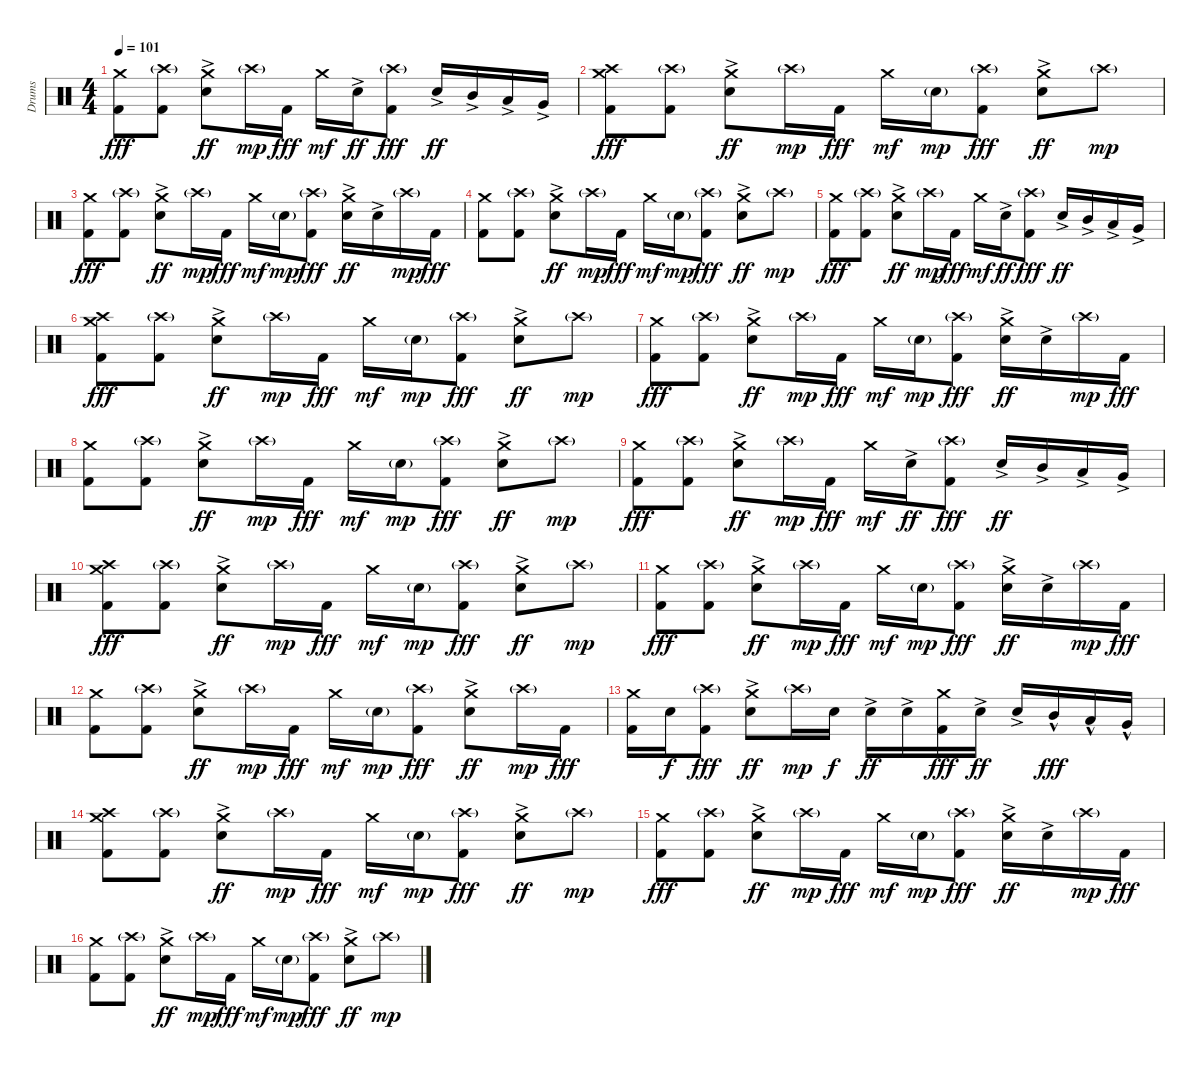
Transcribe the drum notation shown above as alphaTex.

\track ("Drums" "Drums") {instrument percussion}
\staff {score}
\articulation defaults
\ts (4 4)
\tempo 101
\clef neutral
\ks c
("Crash medium (hit)" "Kick (hit) 2").8{dy fff} ("Crash high (hit)"{g} "Kick (hit) 2").8 ("Crash medium (hit)" "Electric Snare (hit)"{ac}).8{dy ff} "Crash high (hit)"{g}.16{dy mp} "Kick (hit) 2".16{dy fff} "Crash medium (hit)".16{dy mf} "Electric Snare (hit)"{ac}.16{dy ff} ("Crash high (hit)"{g} "Kick (hit) 2").8{dy fff} "Electric Snare (hit)"{ac}.16{dy ff} "Mid Tom (hit)"{ac}.16 "Low Tom (hit)"{ac}.16 "Very Low Tom (hit)"{ac}.16 |
("Crash medium (hit)" "Crash high (hit)" "Kick (hit) 2").8{dy fff} ("Crash high (hit)"{g} "Kick (hit) 2").8 ("Crash medium (hit)" "Electric Snare (hit)"{ac}).8{dy ff} "Crash high (hit)"{g}.16{dy mp} "Kick (hit) 2".16{dy fff} "Crash medium (hit)".16{dy mf} "Snare (hit) 2"{g}.16{dy mp} ("Crash high (hit)"{g} "Kick (hit) 2").8{dy fff} ("Crash medium (hit)" "Electric Snare (hit)"{ac}).8{dy ff} "Crash high (hit)"{g}.8{dy mp} |
("Crash medium (hit)" "Kick (hit) 2").8{dy fff} ("Crash high (hit)"{g} "Kick (hit) 2").8 ("Crash medium (hit)" "Electric Snare (hit)"{ac}).8{dy ff} "Crash high (hit)"{g}.16{dy mp} "Kick (hit) 2".16{dy fff} "Crash medium (hit)".16{dy mf} "Snare (hit) 2"{g}.16{dy mp} ("Crash high (hit)"{g} "Kick (hit) 2").8{dy fff} ("Crash medium (hit)" "Electric Snare (hit)"{ac}).16{dy ff} "Electric Snare (hit)"{ac}.16 "Crash high (hit)"{g}.16{dy mp} "Kick (hit) 2".16{dy fff} |
("Crash medium (hit)" "Kick (hit) 2").8 ("Crash high (hit)"{g} "Kick (hit) 2").8 ("Crash medium (hit)" "Electric Snare (hit)"{ac}).8{dy ff} "Crash high (hit)"{g}.16{dy mp} "Kick (hit) 2".16{dy fff} "Crash medium (hit)".16{dy mf} "Snare (hit) 2"{g}.16{dy mp} ("Crash high (hit)"{g} "Kick (hit) 2").8{dy fff} ("Crash medium (hit)" "Electric Snare (hit)"{ac}).8{dy ff} "Crash high (hit)"{g}.8{dy mp} |
("Crash medium (hit)" "Kick (hit) 2").8{dy fff} ("Crash high (hit)"{g} "Kick (hit) 2").8 ("Crash medium (hit)" "Electric Snare (hit)"{ac}).8{dy ff} "Crash high (hit)"{g}.16{dy mp} "Kick (hit) 2".16{dy fff} "Crash medium (hit)".16{dy mf} "Electric Snare (hit)"{ac}.16{dy ff} ("Crash high (hit)"{g} "Kick (hit) 2").8{dy fff} "Electric Snare (hit)"{ac}.16{dy ff} "Mid Tom (hit)"{ac}.16 "Low Tom (hit)"{ac}.16 "Very Low Tom (hit)"{ac}.16 |
("Crash medium (hit)" "Crash high (hit)" "Kick (hit) 2").8{dy fff} ("Crash high (hit)"{g} "Kick (hit) 2").8 ("Crash medium (hit)" "Electric Snare (hit)"{ac}).8{dy ff} "Crash high (hit)"{g}.16{dy mp} "Kick (hit) 2".16{dy fff} "Crash medium (hit)".16{dy mf} "Snare (hit) 2"{g}.16{dy mp} ("Crash high (hit)"{g} "Kick (hit) 2").8{dy fff} ("Crash medium (hit)" "Electric Snare (hit)"{ac}).8{dy ff} "Crash high (hit)"{g}.8{dy mp} |
("Crash medium (hit)" "Kick (hit) 2").8{dy fff} ("Crash high (hit)"{g} "Kick (hit) 2").8 ("Crash medium (hit)" "Electric Snare (hit)"{ac}).8{dy ff} "Crash high (hit)"{g}.16{dy mp} "Kick (hit) 2".16{dy fff} "Crash medium (hit)".16{dy mf} "Snare (hit) 2"{g}.16{dy mp} ("Crash high (hit)"{g} "Kick (hit) 2").8{dy fff} ("Crash medium (hit)" "Electric Snare (hit)"{ac}).16{dy ff} "Electric Snare (hit)"{ac}.16 "Crash high (hit)"{g}.16{dy mp} "Kick (hit) 2".16{dy fff} |
("Crash medium (hit)" "Kick (hit) 2").8 ("Crash high (hit)"{g} "Kick (hit) 2").8 ("Crash medium (hit)" "Electric Snare (hit)"{ac}).8{dy ff} "Crash high (hit)"{g}.16{dy mp} "Kick (hit) 2".16{dy fff} "Crash medium (hit)".16{dy mf} "Snare (hit) 2"{g}.16{dy mp} ("Crash high (hit)"{g} "Kick (hit) 2").8{dy fff} ("Crash medium (hit)" "Electric Snare (hit)"{ac}).8{dy ff} "Crash high (hit)"{g}.8{dy mp} |
("Crash medium (hit)" "Kick (hit) 2").8{dy fff} ("Crash high (hit)"{g} "Kick (hit) 2").8 ("Crash medium (hit)" "Electric Snare (hit)"{ac}).8{dy ff} "Crash high (hit)"{g}.16{dy mp} "Kick (hit) 2".16{dy fff} "Crash medium (hit)".16{dy mf} "Electric Snare (hit)"{ac}.16{dy ff} ("Crash high (hit)"{g} "Kick (hit) 2").8{dy fff} "Electric Snare (hit)"{ac}.16{dy ff} "Mid Tom (hit)"{ac}.16 "Low Tom (hit)"{ac}.16 "Very Low Tom (hit)"{ac}.16 |
("Crash medium (hit)" "Crash high (hit)" "Kick (hit) 2").8{dy fff} ("Crash high (hit)"{g} "Kick (hit) 2").8 ("Crash medium (hit)" "Electric Snare (hit)"{ac}).8{dy ff} "Crash high (hit)"{g}.16{dy mp} "Kick (hit) 2".16{dy fff} "Crash medium (hit)".16{dy mf} "Snare (hit) 2"{g}.16{dy mp} ("Crash high (hit)"{g} "Kick (hit) 2").8{dy fff} ("Crash medium (hit)" "Electric Snare (hit)"{ac}).8{dy ff} "Crash high (hit)"{g}.8{dy mp} |
("Crash medium (hit)" "Kick (hit) 2").8{dy fff} ("Crash high (hit)"{g} "Kick (hit) 2").8 ("Crash medium (hit)" "Electric Snare (hit)"{ac}).8{dy ff} "Crash high (hit)"{g}.16{dy mp} "Kick (hit) 2".16{dy fff} "Crash medium (hit)".16{dy mf} "Snare (hit) 2"{g}.16{dy mp} ("Crash high (hit)"{g} "Kick (hit) 2").8{dy fff} ("Crash medium (hit)" "Electric Snare (hit)"{ac}).16{dy ff} "Electric Snare (hit)"{ac}.16 "Crash high (hit)"{g}.16{dy mp} "Kick (hit) 2".16{dy fff} |
("Crash medium (hit)" "Kick (hit) 2").8 ("Crash high (hit)"{g} "Kick (hit) 2").8 ("Crash medium (hit)" "Electric Snare (hit)"{ac}).8{dy ff} "Crash high (hit)"{g}.16{dy mp} "Kick (hit) 2".16{dy fff} "Crash medium (hit)".16{dy mf} "Snare (hit) 2"{g}.16{dy mp} ("Crash high (hit)"{g} "Kick (hit) 2").8{dy fff} ("Crash medium (hit)" "Electric Snare (hit)"{ac}).8{dy ff} "Crash high (hit)"{g}.16{dy mp} "Kick (hit) 2".16{dy fff} |
("Crash medium (hit)" "Kick (hit) 2").16 "Electric Snare (hit)".16{dy f} ("Crash high (hit)"{g} "Kick (hit) 2").8{dy fff} ("Crash medium (hit)" "Electric Snare (hit)"{ac}).8{dy ff} "Crash high (hit)"{g}.16{dy mp} "Electric Snare (hit)".16{dy f} "Electric Snare (hit)"{ac}.16{dy ff} "Electric Snare (hit)"{ac}.16 ("Crash medium (hit)" "Kick (hit) 2").16{dy fff} "Electric Snare (hit)"{ac}.16{dy ff} "Electric Snare (hit)"{ac}.16 "Mid Tom (hit)"{hac}.16{dy fff} "Low Tom (hit)"{hac}.16 "Very Low Tom (hit)"{hac}.16 |
("Crash medium (hit)" "Crash high (hit)" "Kick (hit) 2").8 ("Crash high (hit)"{g} "Kick (hit) 2").8 ("Crash medium (hit)" "Electric Snare (hit)"{ac}).8{dy ff} "Crash high (hit)"{g}.16{dy mp} "Kick (hit) 2".16{dy fff} "Crash medium (hit)".16{dy mf} "Snare (hit) 2"{g}.16{dy mp} ("Crash high (hit)"{g} "Kick (hit) 2").8{dy fff} ("Crash medium (hit)" "Electric Snare (hit)"{ac}).8{dy ff} "Crash high (hit)"{g}.8{dy mp} |
("Crash medium (hit)" "Kick (hit) 2").8{dy fff} ("Crash high (hit)"{g} "Kick (hit) 2").8 ("Crash medium (hit)" "Electric Snare (hit)"{ac}).8{dy ff} "Crash high (hit)"{g}.16{dy mp} "Kick (hit) 2".16{dy fff} "Crash medium (hit)".16{dy mf} "Snare (hit) 2"{g}.16{dy mp} ("Crash high (hit)"{g} "Kick (hit) 2").8{dy fff} ("Crash medium (hit)" "Electric Snare (hit)"{ac}).16{dy ff} "Electric Snare (hit)"{ac}.16 "Crash high (hit)"{g}.16{dy mp} "Kick (hit) 2".16{dy fff} |
("Crash medium (hit)" "Kick (hit) 2").8 ("Crash high (hit)"{g} "Kick (hit) 2").8 ("Crash medium (hit)" "Electric Snare (hit)"{ac}).8{dy ff} "Crash high (hit)"{g}.16{dy mp} "Kick (hit) 2".16{dy fff} "Crash medium (hit)".16{dy mf} "Snare (hit) 2"{g}.16{dy mp} ("Crash high (hit)"{g} "Kick (hit) 2").8{dy fff} ("Crash medium (hit)" "Electric Snare (hit)"{ac}).8{dy ff} "Crash high (hit)"{g}.8{dy mp}
